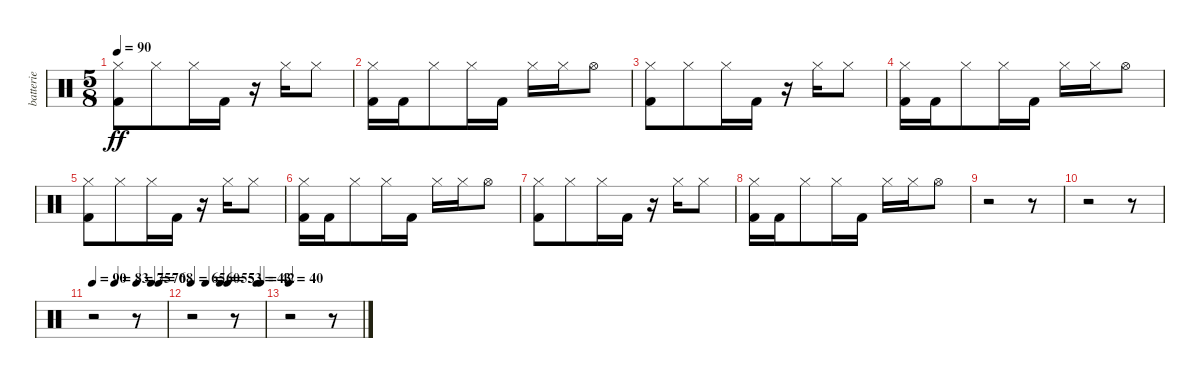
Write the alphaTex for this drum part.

\track ("batterie" "batterie") {instrument percussion}
\staff {score}
\articulation defaults
\ts (5 8)
\tempo 90
\clef neutral
\ks c
("Kick (hit) 2" "Hi-Hat (closed)").8{dy ff} "Hi-Hat (closed)".8 "Hi-Hat (closed)".16 "Kick (hit) 2".16 r.16 "Hi-Hat (closed)".16 "Hi-Hat (closed)".8 |
("Kick (hit) 2" "Hi-Hat (closed)").16 "Kick (hit) 2".16 "Hi-Hat (closed)".8 "Hi-Hat (closed)".16 "Kick (hit) 2".16 "Hi-Hat (closed)".16 "Hi-Hat (closed)".16 "Hi-Hat (open)".8 |
("Kick (hit) 2" "Hi-Hat (closed)").8 "Hi-Hat (closed)".8 "Hi-Hat (closed)".16 "Kick (hit) 2".16 r.16 "Hi-Hat (closed)".16 "Hi-Hat (closed)".8 |
("Kick (hit) 2" "Hi-Hat (closed)").16 "Kick (hit) 2".16 "Hi-Hat (closed)".8 "Hi-Hat (closed)".16 "Kick (hit) 2".16 "Hi-Hat (closed)".16 "Hi-Hat (closed)".16 "Hi-Hat (open)".8 |
("Kick (hit) 2" "Hi-Hat (closed)").8 "Hi-Hat (closed)".8 "Hi-Hat (closed)".16 "Kick (hit) 2".16 r.16 "Hi-Hat (closed)".16 "Hi-Hat (closed)".8 |
("Kick (hit) 2" "Hi-Hat (closed)").16 "Kick (hit) 2".16 "Hi-Hat (closed)".8 "Hi-Hat (closed)".16 "Kick (hit) 2".16 "Hi-Hat (closed)".16 "Hi-Hat (closed)".16 "Hi-Hat (open)".8 |
("Kick (hit) 2" "Hi-Hat (closed)").8 "Hi-Hat (closed)".8 "Hi-Hat (closed)".16 "Kick (hit) 2".16 r.16 "Hi-Hat (closed)".16 "Hi-Hat (closed)".8 |
("Kick (hit) 2" "Hi-Hat (closed)").16 "Kick (hit) 2".16 "Hi-Hat (closed)".8 "Hi-Hat (closed)".16 "Kick (hit) 2".16 "Hi-Hat (closed)".16 "Hi-Hat (closed)".16 "Hi-Hat (open)".8 |
r.2 r.8 |
r.2 r.8 |
\tempo 90
\tempo (83 0.3)
\tempo (75 0.6)
\tempo (70 0.8)
\tempo (68 0.9)
r.2 r.8 |
\tempo 65
\tempo (60 0.2)
\tempo (55 0.4)
\tempo (53 0.5)
\tempo (43 0.9)
\tempo (42 0.95)
r.2 r.8 |
\tempo 40
r.2 r.8
